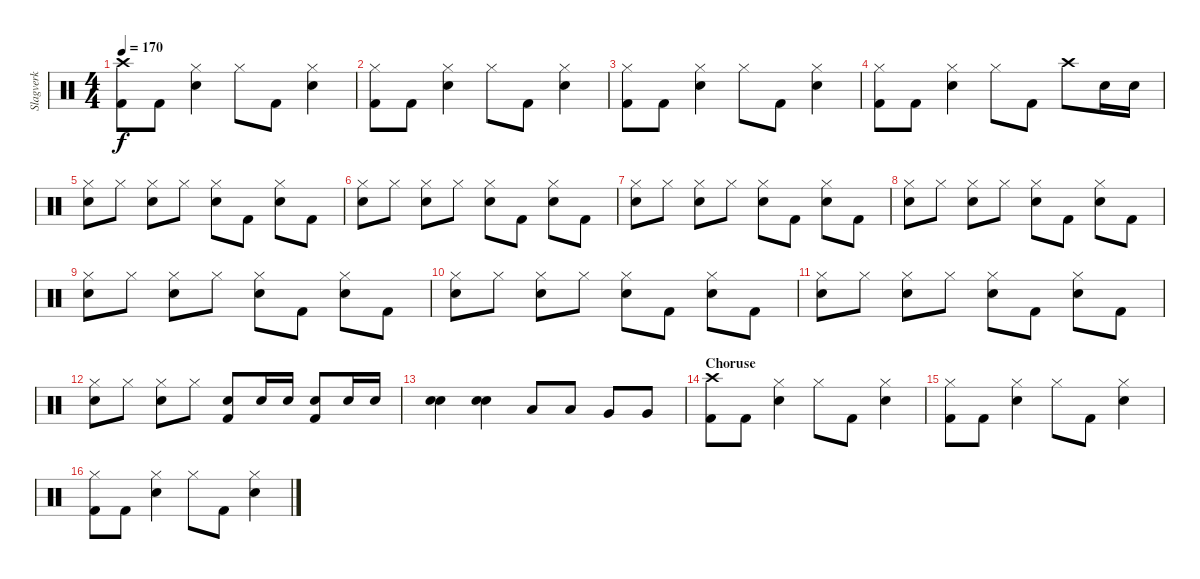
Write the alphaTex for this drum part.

\track ("Slagverk" "Slagverk") {instrument percussion}
\staff {score}
\articulation defaults
\ts (4 4)
\tempo 170
\clef neutral
\ks c
("Kick (hit) 2" "Crash high (hit)").8{dy f} "Kick (hit) 2".8 ("Hi-Hat (closed)" "Snare (hit) 2").4 "Hi-Hat (closed)".8 "Kick (hit) 2".8 ("Hi-Hat (closed)" "Snare (hit) 2").4 |
("Kick (hit) 2" "Hi-Hat (closed)").8 "Kick (hit) 2".8 ("Hi-Hat (closed)" "Snare (hit) 2").4 "Hi-Hat (closed)".8 "Kick (hit) 2".8 ("Hi-Hat (closed)" "Snare (hit) 2").4 |
("Kick (hit) 2" "Hi-Hat (closed)").8 "Kick (hit) 2".8 ("Hi-Hat (closed)" "Snare (hit) 2").4 "Hi-Hat (closed)".8 "Kick (hit) 2".8 ("Hi-Hat (closed)" "Snare (hit) 2").4 |
("Kick (hit) 2" "Hi-Hat (closed)").8 "Kick (hit) 2".8 ("Hi-Hat (closed)" "Snare (hit) 2").4 "Hi-Hat (closed)".8 "Kick (hit) 2".8 "Crash high (hit)".8 "Snare (hit) 2".16 "Snare (hit) 2".16 |
("Hi-Hat (closed)" "Snare (hit) 2").8 "Hi-Hat (closed)".8 ("Hi-Hat (closed)" "Snare (hit) 2").8 "Hi-Hat (closed)".8 ("Hi-Hat (closed)" "Snare (hit) 2").8 "Kick (hit) 2".8 ("Hi-Hat (closed)" "Snare (hit) 2").8 "Kick (hit) 2".8 |
("Hi-Hat (closed)" "Snare (hit) 2").8 "Hi-Hat (closed)".8 ("Hi-Hat (closed)" "Snare (hit) 2").8 "Hi-Hat (closed)".8 ("Hi-Hat (closed)" "Snare (hit) 2").8 "Kick (hit) 2".8 ("Hi-Hat (closed)" "Snare (hit) 2").8 "Kick (hit) 2".8 |
("Hi-Hat (closed)" "Snare (hit) 2").8 "Hi-Hat (closed)".8 ("Hi-Hat (closed)" "Snare (hit) 2").8 "Hi-Hat (closed)".8 ("Hi-Hat (closed)" "Snare (hit) 2").8 "Kick (hit) 2".8 ("Hi-Hat (closed)" "Snare (hit) 2").8 "Kick (hit) 2".8 |
("Hi-Hat (closed)" "Snare (hit) 2").8 "Hi-Hat (closed)".8 ("Hi-Hat (closed)" "Snare (hit) 2").8 "Hi-Hat (closed)".8 ("Hi-Hat (closed)" "Snare (hit) 2").8 "Kick (hit) 2".8 ("Hi-Hat (closed)" "Snare (hit) 2").8 "Kick (hit) 2".8 |
("Hi-Hat (closed)" "Snare (hit) 2").8 "Hi-Hat (closed)".8 ("Hi-Hat (closed)" "Snare (hit) 2").8 "Hi-Hat (closed)".8 ("Hi-Hat (closed)" "Snare (hit) 2").8 "Kick (hit) 2".8 ("Hi-Hat (closed)" "Snare (hit) 2").8 "Kick (hit) 2".8 |
("Hi-Hat (closed)" "Snare (hit) 2").8 "Hi-Hat (closed)".8 ("Hi-Hat (closed)" "Snare (hit) 2").8 "Hi-Hat (closed)".8 ("Hi-Hat (closed)" "Snare (hit) 2").8 "Kick (hit) 2".8 ("Hi-Hat (closed)" "Snare (hit) 2").8 "Kick (hit) 2".8 |
("Hi-Hat (closed)" "Snare (hit) 2").8 "Hi-Hat (closed)".8 ("Hi-Hat (closed)" "Snare (hit) 2").8 "Hi-Hat (closed)".8 ("Hi-Hat (closed)" "Snare (hit) 2").8 "Kick (hit) 2".8 ("Hi-Hat (closed)" "Snare (hit) 2").8 "Kick (hit) 2".8 |
("Hi-Hat (closed)" "Snare (hit) 2").8 "Hi-Hat (closed)".8 ("Hi-Hat (closed)" "Snare (hit) 2").8 "Hi-Hat (closed)".8 ("Kick (hit) 2" "Snare (hit) 2").8 "Snare (hit) 2".16 "Snare (hit) 2".16 ("Kick (hit) 2" "Snare (hit) 2").8 "Snare (hit) 2".16 "Snare (hit) 2".16 |
("Snare (hit) 2" "Snare (hit) 2").4{bd 240} ("Snare (hit) 2" "Snare (hit) 2").4{bd 240} "Low Tom (hit)".8 "Low Tom (hit)".8 "Very Low Tom (hit)".8 "Very Low Tom (hit)".8 |
\section ("" "Choruse")
("Kick (hit) 2" "Crash high (hit)").8 "Kick (hit) 2".8 ("Hi-Hat (closed)" "Snare (hit) 2").4 "Hi-Hat (closed)".8 "Kick (hit) 2".8 ("Hi-Hat (closed)" "Snare (hit) 2").4 |
("Kick (hit) 2" "Hi-Hat (closed)").8 "Kick (hit) 2".8 ("Hi-Hat (closed)" "Snare (hit) 2").4 "Hi-Hat (closed)".8 "Kick (hit) 2".8 ("Hi-Hat (closed)" "Snare (hit) 2").4 |
("Kick (hit) 2" "Hi-Hat (closed)").8 "Kick (hit) 2".8 ("Hi-Hat (closed)" "Snare (hit) 2").4 "Hi-Hat (closed)".8 "Kick (hit) 2".8 ("Hi-Hat (closed)" "Snare (hit) 2").4
